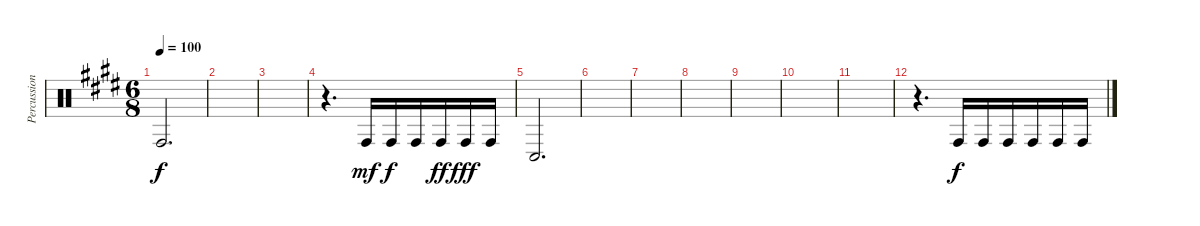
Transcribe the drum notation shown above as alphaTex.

\track ("Percussion" "Percussion") {instrument percussion}
\staff {score}
\articulation defaults
\ts (6 8)
\tempo 100
\clef neutral
\ks c#minor "Conga high (hit)".2{d dy f}
|
|
|
r.4{d} "Conga high (hit)".16{dy mf} "Conga high (hit)".16{dy f} "Conga high (hit)".16 "Conga high (hit)".16{dy ff} "Conga high (hit)".16{dy fff} "Conga high (hit)".16 |
"Conga low (hit)".2{d} |
|
|
|
|
|
|
r.4{d} "Conga high (hit)".16{dy f} "Conga high (hit)".16 "Conga high (hit)".16 "Conga high (hit)".16 "Conga high (hit)".16 "Conga high (hit)".16
